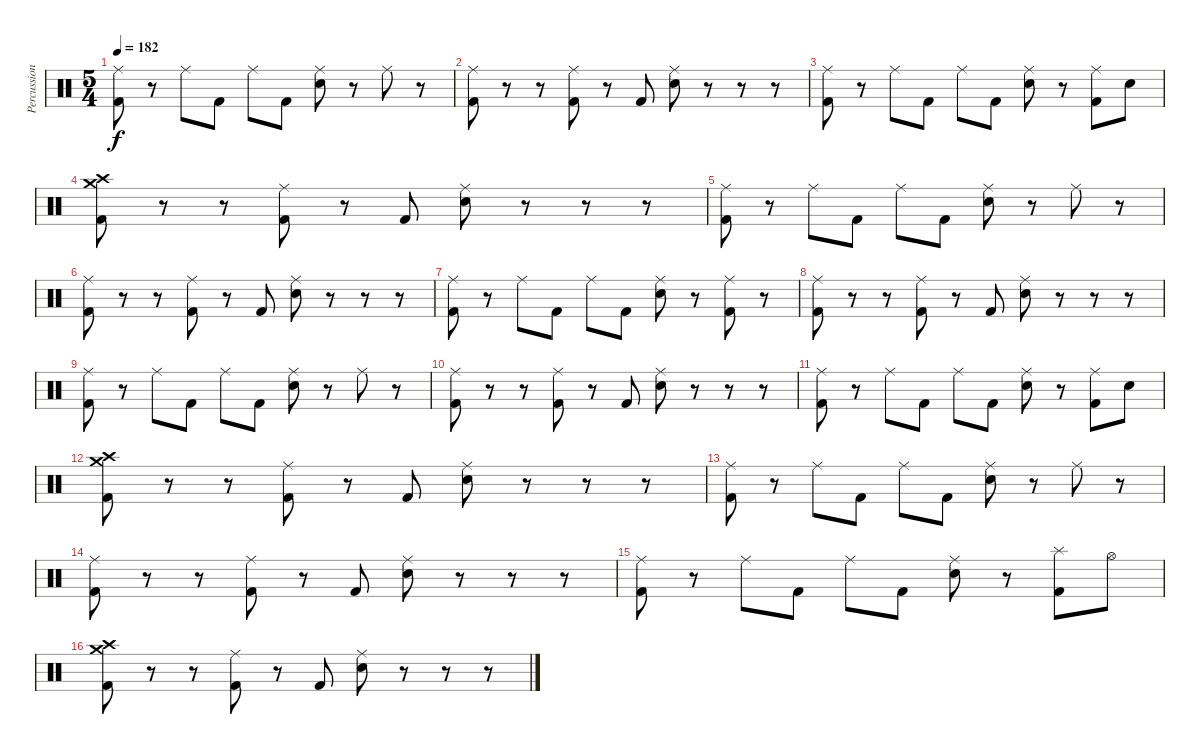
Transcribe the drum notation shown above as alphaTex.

\track ("Percussion" "Percussion") {instrument percussion}
\staff {score}
\articulation defaults
\ts (5 4)
\tempo 182
\clef neutral
\ks c
("Ride (middle)" "Kick (hit) 2").8{dy f} r.8 "Ride (middle)".8 "Kick (hit) 2".8 "Ride (middle)".8 "Kick (hit) 2".8 ("Ride (middle)" "Electric Snare (hit)").8 r.8 "Ride (middle)".8 r.8 |
("Ride (middle)" "Kick (hit) 2").8 r.8 r.8 ("Ride (middle)" "Kick (hit) 2").8 r.8 "Kick (hit) 2".8 ("Ride (middle)" "Electric Snare (hit)").8 r.8 r.8 r.8 |
("Ride (middle)" "Kick (hit) 2").8 r.8 "Ride (middle)".8 "Kick (hit) 2".8 "Ride (middle)".8 "Kick (hit) 2".8 ("Ride (middle)" "Electric Snare (hit)").8 r.8 ("Ride (middle)" "Kick (hit) 2").8 "Electric Snare (hit)".8 |
("Crash high (hit)" "Crash medium (hit)" "Kick (hit) 2").8 r.8 r.8 ("Ride (middle)" "Kick (hit) 2").8 r.8 "Kick (hit) 2".8 ("Ride (middle)" "Electric Snare (hit)").8 r.8 r.8 r.8 |
("Ride (middle)" "Kick (hit) 2").8 r.8 "Ride (middle)".8 "Kick (hit) 2".8 "Ride (middle)".8 "Kick (hit) 2".8 ("Ride (middle)" "Electric Snare (hit)").8 r.8 "Ride (middle)".8 r.8 |
("Ride (middle)" "Kick (hit) 2").8 r.8 r.8 ("Ride (middle)" "Kick (hit) 2").8 r.8 "Kick (hit) 2".8 ("Ride (middle)" "Electric Snare (hit)").8 r.8 r.8 r.8 |
("Ride (middle)" "Kick (hit) 2").8 r.8 "Ride (middle)".8 "Kick (hit) 2".8 "Ride (middle)".8 "Kick (hit) 2".8 ("Ride (middle)" "Electric Snare (hit)").8 r.8 ("Ride (middle)" "Kick (hit) 2").8 r.8 |
("Ride (middle)" "Kick (hit) 2").8 r.8 r.8 ("Ride (middle)" "Kick (hit) 2").8 r.8 "Kick (hit) 2".8 ("Ride (middle)" "Electric Snare (hit)").8 r.8 r.8 r.8 |
("Ride (middle)" "Kick (hit) 2").8 r.8 "Ride (middle)".8 "Kick (hit) 2".8 "Ride (middle)".8 "Kick (hit) 2".8 ("Ride (middle)" "Electric Snare (hit)").8 r.8 "Ride (middle)".8 r.8 |
("Ride (middle)" "Kick (hit) 2").8 r.8 r.8 ("Ride (middle)" "Kick (hit) 2").8 r.8 "Kick (hit) 2".8 ("Ride (middle)" "Electric Snare (hit)").8 r.8 r.8 r.8 |
("Ride (middle)" "Kick (hit) 2").8 r.8 "Ride (middle)".8 "Kick (hit) 2".8 "Ride (middle)".8 "Kick (hit) 2".8 ("Ride (middle)" "Electric Snare (hit)").8 r.8 ("Ride (middle)" "Kick (hit) 2").8 "Electric Snare (hit)".8 |
("Crash high (hit)" "Crash medium (hit)" "Kick (hit) 2").8 r.8 r.8 ("Ride (middle)" "Kick (hit) 2").8 r.8 "Kick (hit) 2".8 ("Ride (middle)" "Electric Snare (hit)").8 r.8 r.8 r.8 |
("Ride (middle)" "Kick (hit) 2").8 r.8 "Ride (middle)".8 "Kick (hit) 2".8 "Ride (middle)".8 "Kick (hit) 2".8 ("Ride (middle)" "Electric Snare (hit)").8 r.8 "Ride (middle)".8 r.8 |
("Ride (middle)" "Kick (hit) 2").8 r.8 r.8 ("Ride (middle)" "Kick (hit) 2").8 r.8 "Kick (hit) 2".8 ("Ride (middle)" "Electric Snare (hit)").8 r.8 r.8 r.8 |
("Ride (middle)" "Kick (hit) 2").8 r.8 "Ride (middle)".8 "Kick (hit) 2".8 "Ride (middle)".8 "Kick (hit) 2".8 ("Ride (middle)" "Electric Snare (hit)").8 r.8 ("Splash (hit)" "Kick (hit) 2").8 "Hi-Hat (open)".8 |
("Crash high (hit)" "Crash medium (hit)" "Kick (hit) 2").8 r.8 r.8 ("Ride (middle)" "Kick (hit) 2").8 r.8 "Kick (hit) 2".8 ("Ride (middle)" "Electric Snare (hit)").8 r.8 r.8 r.8
